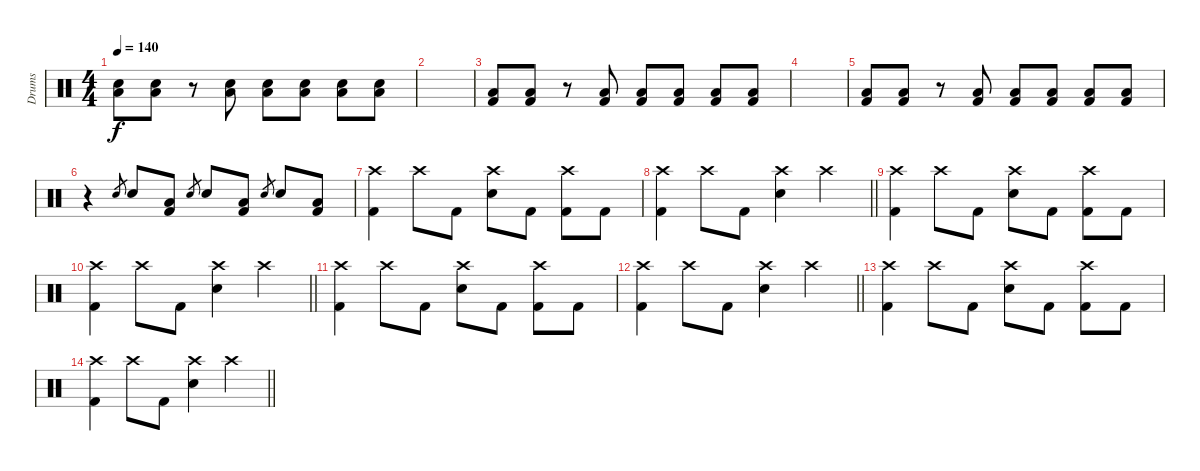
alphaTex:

\track ("Drums" "Drums") {instrument percussion}
\staff {score}
\articulation defaults
\ts (4 4)
\tempo 140
\clef neutral
\ks c
("Snare (hit) 2" "Low Floor Tom (hit)").8{dy f} ("Snare (hit) 2" "Low Floor Tom (hit)").8 r.8 ("Snare (hit) 2" "Low Floor Tom (hit)").8 ("Snare (hit) 2" "Low Floor Tom (hit)").8 ("Snare (hit) 2" "Low Floor Tom (hit)").8 ("Snare (hit) 2" "Low Floor Tom (hit)").8 ("Snare (hit) 2" "Low Floor Tom (hit)").8 |
|
("Kick (hit) 2" "Low Floor Tom (hit)").8 ("Kick (hit) 2" "Low Floor Tom (hit)").8 r.8 ("Kick (hit) 2" "Low Floor Tom (hit)").8 ("Kick (hit) 2" "Low Floor Tom (hit)").8 ("Kick (hit) 2" "Low Floor Tom (hit)").8 ("Kick (hit) 2" "Low Floor Tom (hit)").8 ("Kick (hit) 2" "Low Floor Tom (hit)").8 |
|
("Kick (hit) 2" "Low Floor Tom (hit)").8 ("Kick (hit) 2" "Low Floor Tom (hit)").8 r.8 ("Kick (hit) 2" "Low Floor Tom (hit)").8 ("Kick (hit) 2" "Low Floor Tom (hit)").8 ("Kick (hit) 2" "Low Floor Tom (hit)").8 ("Kick (hit) 2" "Low Floor Tom (hit)").8 ("Kick (hit) 2" "Low Floor Tom (hit)").8 |
r.4 "Snare (hit) 2".8{gr} "Snare (hit) 2".8 ("Kick (hit) 2" "Low Floor Tom (hit)").8 "Snare (hit) 2".8{gr} "Snare (hit) 2".8 ("Kick (hit) 2" "Low Floor Tom (hit)").8 "Snare (hit) 2".8{gr} "Snare (hit) 2".8 ("Kick (hit) 2" "Low Floor Tom (hit)").8 |
("Kick (hit) 2" "Crash high (hit)").4 "Crash high (hit)".8 "Kick (hit) 2".8 ("Snare (hit) 2" "Crash high (hit)").8 "Kick (hit) 2".8 ("Kick (hit) 2" "Crash high (hit)").8 "Kick (hit) 2".8 |
\barLineRight lightlight
("Kick (hit) 2" "Crash high (hit)").4 "Crash high (hit)".8 "Kick (hit) 2".8 ("Snare (hit) 2" "Crash high (hit)").4 "Crash high (hit)".4 |
("Kick (hit) 2" "Crash high (hit)").4 "Crash high (hit)".8 "Kick (hit) 2".8 ("Snare (hit) 2" "Crash high (hit)").8 "Kick (hit) 2".8 ("Kick (hit) 2" "Crash high (hit)").8 "Kick (hit) 2".8 |
\barLineRight lightlight
("Kick (hit) 2" "Crash high (hit)").4 "Crash high (hit)".8 "Kick (hit) 2".8 ("Snare (hit) 2" "Crash high (hit)").4 "Crash high (hit)".4 |
("Kick (hit) 2" "Crash high (hit)").4 "Crash high (hit)".8 "Kick (hit) 2".8 ("Snare (hit) 2" "Crash high (hit)").8 "Kick (hit) 2".8 ("Kick (hit) 2" "Crash high (hit)").8 "Kick (hit) 2".8 |
\barLineRight lightlight
("Kick (hit) 2" "Crash high (hit)").4 "Crash high (hit)".8 "Kick (hit) 2".8 ("Snare (hit) 2" "Crash high (hit)").4 "Crash high (hit)".4 |
("Kick (hit) 2" "Crash high (hit)").4 "Crash high (hit)".8 "Kick (hit) 2".8 ("Snare (hit) 2" "Crash high (hit)").8 "Kick (hit) 2".8 ("Kick (hit) 2" "Crash high (hit)").8 "Kick (hit) 2".8 |
\barLineRight lightlight
("Kick (hit) 2" "Crash high (hit)").4 "Crash high (hit)".8 "Kick (hit) 2".8 ("Snare (hit) 2" "Crash high (hit)").4 "Crash high (hit)".4
